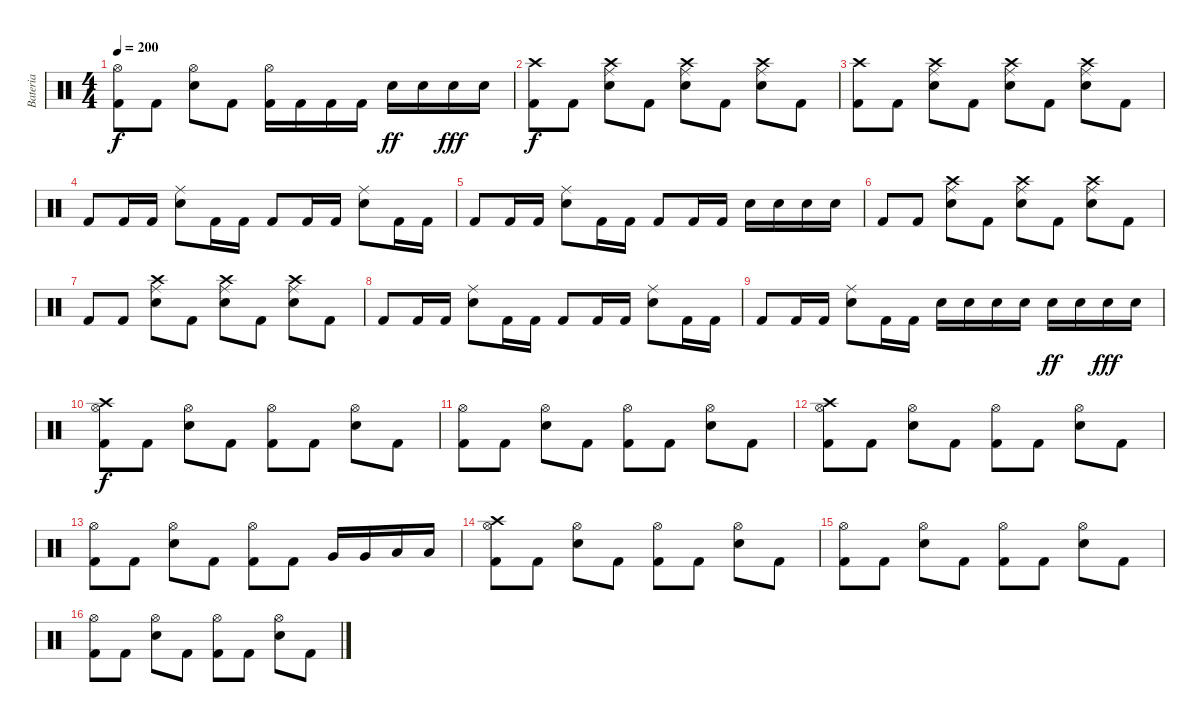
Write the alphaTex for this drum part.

\track ("Bateria" "Bateria") {instrument percussion}
\staff {score}
\articulation defaults
\ts (4 4)
\tempo 200
\clef neutral
\ks c
("Kick (hit) 2" "Hi-Hat (open)").8{dy f} "Kick (hit) 2".8 ("Electric Snare (hit)" "Hi-Hat (open)").8 "Kick (hit) 2".8 ("Kick (hit) 2" "Hi-Hat (open)").16 "Kick (hit) 2".16 "Kick (hit) 2".16 "Kick (hit) 2".16 "Electric Snare (hit)".16{dy ff} "Electric Snare (hit)".16 "Electric Snare (hit)".16{dy fff} "Electric Snare (hit)".16 |
("Kick (hit) 2" "Crash high (hit)").8{dy f} "Kick (hit) 2".8 ("Crash high (hit)" "Electric Snare (hit)" "Ride (middle)").8 "Kick (hit) 2".8 ("Crash high (hit)" "Electric Snare (hit)" "Ride (middle)").8 "Kick (hit) 2".8 ("Crash high (hit)" "Electric Snare (hit)" "Ride (middle)").8 "Kick (hit) 2".8 |
("Kick (hit) 2" "Crash high (hit)").8 "Kick (hit) 2".8 ("Crash high (hit)" "Electric Snare (hit)" "Ride (middle)").8 "Kick (hit) 2".8 ("Crash high (hit)" "Electric Snare (hit)" "Ride (middle)").8 "Kick (hit) 2".8 ("Crash high (hit)" "Electric Snare (hit)" "Ride (middle)").8 "Kick (hit) 2".8 |
"Kick (hit) 2".8 "Kick (hit) 2".16 "Kick (hit) 2".16 ("Electric Snare (hit)" "Ride (middle)").8 "Kick (hit) 2".16 "Kick (hit) 2".16 "Kick (hit) 2".8 "Kick (hit) 2".16 "Kick (hit) 2".16 ("Electric Snare (hit)" "Ride (middle)").8 "Kick (hit) 2".16 "Kick (hit) 2".16 |
"Kick (hit) 2".8 "Kick (hit) 2".16 "Kick (hit) 2".16 ("Electric Snare (hit)" "Ride (middle)").8 "Kick (hit) 2".16 "Kick (hit) 2".16 "Kick (hit) 2".8 "Kick (hit) 2".16 "Kick (hit) 2".16 "Electric Snare (hit)".16 "Electric Snare (hit)".16 "Electric Snare (hit)".16 "Electric Snare (hit)".16 |
"Kick (hit) 2".8 "Kick (hit) 2".8 ("Crash high (hit)" "Electric Snare (hit)" "Ride (middle)").8 "Kick (hit) 2".8 ("Crash high (hit)" "Electric Snare (hit)" "Ride (middle)").8 "Kick (hit) 2".8 ("Crash high (hit)" "Electric Snare (hit)" "Ride (middle)").8 "Kick (hit) 2".8 |
"Kick (hit) 2".8 "Kick (hit) 2".8 ("Crash high (hit)" "Electric Snare (hit)" "Ride (middle)").8 "Kick (hit) 2".8 ("Crash high (hit)" "Electric Snare (hit)" "Ride (middle)").8 "Kick (hit) 2".8 ("Crash high (hit)" "Electric Snare (hit)" "Ride (middle)").8 "Kick (hit) 2".8 |
"Kick (hit) 2".8 "Kick (hit) 2".16 "Kick (hit) 2".16 ("Electric Snare (hit)" "Ride (middle)").8 "Kick (hit) 2".16 "Kick (hit) 2".16 "Kick (hit) 2".8 "Kick (hit) 2".16 "Kick (hit) 2".16 ("Electric Snare (hit)" "Ride (middle)").8 "Kick (hit) 2".16 "Kick (hit) 2".16 |
"Kick (hit) 2".8 "Kick (hit) 2".16 "Kick (hit) 2".16 ("Electric Snare (hit)" "Ride (middle)").8 "Kick (hit) 2".16 "Kick (hit) 2".16 "Electric Snare (hit)".16 "Electric Snare (hit)".16 "Electric Snare (hit)".16 "Electric Snare (hit)".16 "Electric Snare (hit)".16{dy ff} "Electric Snare (hit)".16 "Electric Snare (hit)".16{dy fff} "Electric Snare (hit)".16 |
("Kick (hit) 2" "Hi-Hat (open)" "Crash high (hit)").8{dy f} "Kick (hit) 2".8 ("Electric Snare (hit)" "Hi-Hat (open)").8 "Kick (hit) 2".8 ("Kick (hit) 2" "Hi-Hat (open)").8 "Kick (hit) 2".8 ("Electric Snare (hit)" "Hi-Hat (open)").8 "Kick (hit) 2".8 |
("Kick (hit) 2" "Hi-Hat (open)").8 "Kick (hit) 2".8 ("Electric Snare (hit)" "Hi-Hat (open)").8 "Kick (hit) 2".8 ("Kick (hit) 2" "Hi-Hat (open)").8 "Kick (hit) 2".8 ("Electric Snare (hit)" "Hi-Hat (open)").8 "Kick (hit) 2".8 |
("Kick (hit) 2" "Hi-Hat (open)" "Crash high (hit)").8 "Kick (hit) 2".8 ("Electric Snare (hit)" "Hi-Hat (open)").8 "Kick (hit) 2".8 ("Kick (hit) 2" "Hi-Hat (open)").8 "Kick (hit) 2".8 ("Electric Snare (hit)" "Hi-Hat (open)").8 "Kick (hit) 2".8 |
("Kick (hit) 2" "Hi-Hat (open)").8 "Kick (hit) 2".8 ("Electric Snare (hit)" "Hi-Hat (open)").8 "Kick (hit) 2".8 ("Kick (hit) 2" "Hi-Hat (open)").8 "Kick (hit) 2".8 "Very Low Tom (hit)".16 "Very Low Tom (hit)".16 "Low Floor Tom (hit)".16 "Low Floor Tom (hit)".16 |
("Kick (hit) 2" "Hi-Hat (open)" "Crash high (hit)").8 "Kick (hit) 2".8 ("Electric Snare (hit)" "Hi-Hat (open)").8 "Kick (hit) 2".8 ("Kick (hit) 2" "Hi-Hat (open)").8 "Kick (hit) 2".8 ("Electric Snare (hit)" "Hi-Hat (open)").8 "Kick (hit) 2".8 |
("Kick (hit) 2" "Hi-Hat (open)").8 "Kick (hit) 2".8 ("Electric Snare (hit)" "Hi-Hat (open)").8 "Kick (hit) 2".8 ("Kick (hit) 2" "Hi-Hat (open)").8 "Kick (hit) 2".8 ("Electric Snare (hit)" "Hi-Hat (open)").8 "Kick (hit) 2".8 |
("Kick (hit) 2" "Hi-Hat (open)").8 "Kick (hit) 2".8 ("Electric Snare (hit)" "Hi-Hat (open)").8 "Kick (hit) 2".8 ("Kick (hit) 2" "Hi-Hat (open)").8 "Kick (hit) 2".8 ("Electric Snare (hit)" "Hi-Hat (open)").8 "Kick (hit) 2".8
